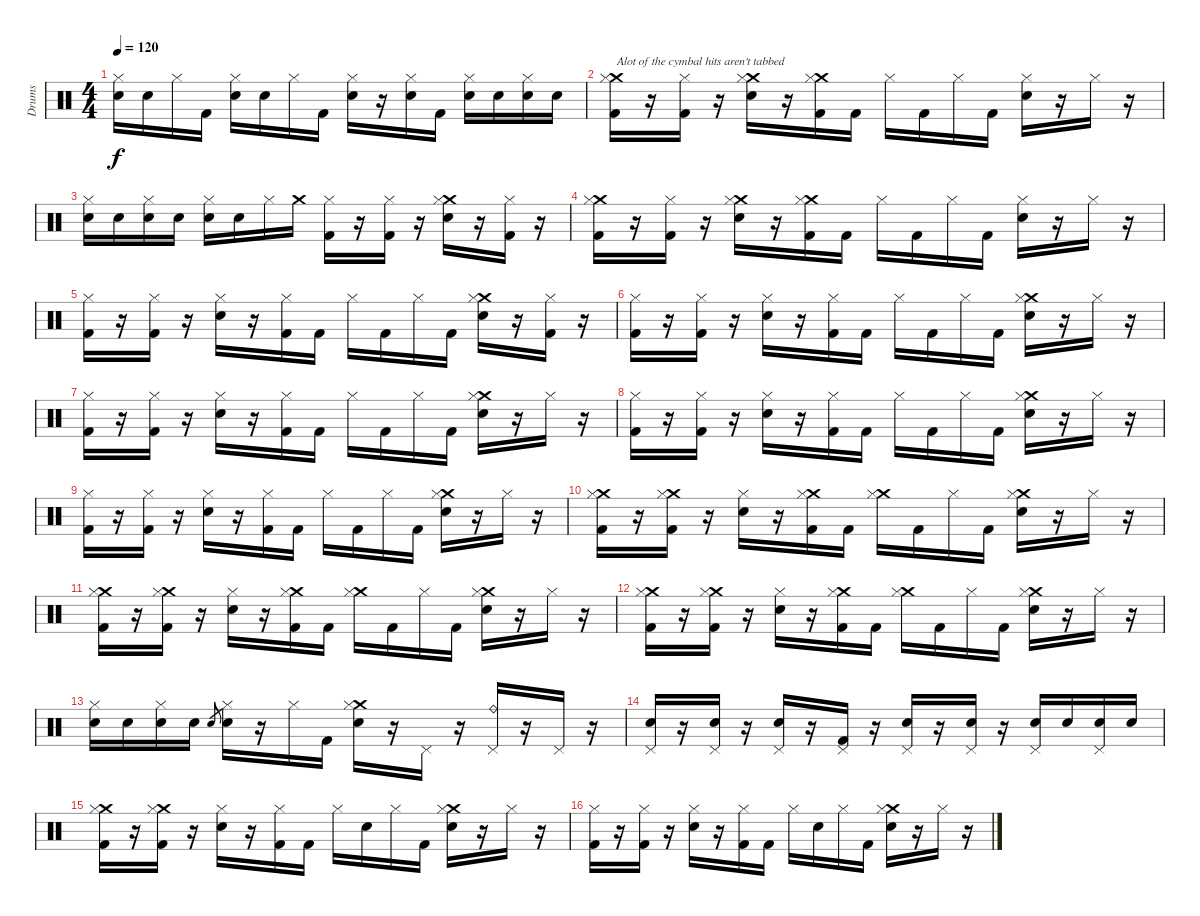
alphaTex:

\track ("Drums" "Drums") {instrument percussion}
\staff {score}
\articulation defaults
\ts (4 4)
\tempo 120
\clef neutral
\ks c
("Hi-Hat (closed)" "Snare (hit) 2").16{dy f} "Snare (hit) 2".16 "Hi-Hat (closed)".16 "Kick (hit) 2".16 ("Hi-Hat (closed)" "Snare (hit) 2").16 "Snare (hit) 2".16 "Hi-Hat (closed)".16 "Kick (hit) 2".16 ("Hi-Hat (closed)" "Snare (hit) 2").16 r.16 ("Hi-Hat (closed)" "Snare (hit) 2").16 "Kick (hit) 2".16 ("Hi-Hat (closed)" "Snare (hit) 2").16 "Snare (hit) 2".16 ("Hi-Hat (closed)" "Snare (hit) 2").16 "Snare (hit) 2".16 |
("Crash medium (hit)" "Hi-Hat (closed)" "Kick (hit) 2").16{txt "Alot of the cymbal hits aren't tabbed"} r.16 ("Hi-Hat (closed)" "Kick (hit) 2").16 r.16 ("Crash medium (hit)" "Hi-Hat (closed)" "Snare (hit) 2").16 r.16 ("Crash medium (hit)" "Hi-Hat (closed)" "Kick (hit) 2").16 "Kick (hit) 2".16 "Hi-Hat (closed)".16 "Kick (hit) 2".16 "Hi-Hat (closed)".16 "Kick (hit) 2".16 ("Hi-Hat (closed)" "Snare (hit) 2").16 r.16 "Hi-Hat (closed)".16 r.16 |
("Hi-Hat (closed)" "Snare (hit) 2").16 "Snare (hit) 2".16 ("Hi-Hat (closed)" "Snare (hit) 2").16 "Snare (hit) 2".16 ("Hi-Hat (closed)" "Snare (hit) 2").16 "Snare (hit) 2".16 "Hi-Hat (closed)".16 "Crash medium (hit)".16 ("Hi-Hat (closed)" "Kick (hit) 2").16 r.16 ("Hi-Hat (closed)" "Kick (hit) 2").16 r.16 ("Crash medium (hit)" "Hi-Hat (closed)" "Snare (hit) 2").16 r.16 ("Hi-Hat (closed)" "Kick (hit) 2").16 r.16 |
("Crash medium (hit)" "Hi-Hat (closed)" "Kick (hit) 2").16 r.16 ("Hi-Hat (closed)" "Kick (hit) 2").16 r.16 ("Crash medium (hit)" "Hi-Hat (closed)" "Snare (hit) 2").16 r.16 ("Crash medium (hit)" "Hi-Hat (closed)" "Kick (hit) 2").16 "Kick (hit) 2".16 "Hi-Hat (closed)".16 "Kick (hit) 2".16 "Hi-Hat (closed)".16 "Kick (hit) 2".16 ("Hi-Hat (closed)" "Snare (hit) 2").16 r.16 "Hi-Hat (closed)".16 r.16 |
("Hi-Hat (closed)" "Kick (hit) 2").16 r.16 ("Hi-Hat (closed)" "Kick (hit) 2").16 r.16 ("Hi-Hat (closed)" "Snare (hit) 2").16 r.16 ("Hi-Hat (closed)" "Kick (hit) 2").16 "Kick (hit) 2".16 "Hi-Hat (closed)".16 "Kick (hit) 2".16 "Hi-Hat (closed)".16 "Kick (hit) 2".16 ("Crash medium (hit)" "Hi-Hat (closed)" "Snare (hit) 2").16 r.16 ("Hi-Hat (closed)" "Kick (hit) 2").16 r.16 |
("Hi-Hat (closed)" "Kick (hit) 2").16 r.16 ("Hi-Hat (closed)" "Kick (hit) 2").16 r.16 ("Hi-Hat (closed)" "Snare (hit) 2").16 r.16 ("Hi-Hat (closed)" "Kick (hit) 2").16 "Kick (hit) 2".16 "Hi-Hat (closed)".16 "Kick (hit) 2".16 "Hi-Hat (closed)".16 "Kick (hit) 2".16 ("Crash medium (hit)" "Hi-Hat (closed)" "Snare (hit) 2").16 r.16 "Hi-Hat (closed)".16 r.16 |
("Hi-Hat (closed)" "Kick (hit) 2").16 r.16 ("Hi-Hat (closed)" "Kick (hit) 2").16 r.16 ("Hi-Hat (closed)" "Snare (hit) 2").16 r.16 ("Hi-Hat (closed)" "Kick (hit) 2").16 "Kick (hit) 2".16 "Hi-Hat (closed)".16 "Kick (hit) 2".16 "Hi-Hat (closed)".16 "Kick (hit) 2".16 ("Crash medium (hit)" "Hi-Hat (closed)" "Snare (hit) 2").16 r.16 "Hi-Hat (closed)".16 r.16 |
("Hi-Hat (closed)" "Kick (hit) 2").16 r.16 ("Hi-Hat (closed)" "Kick (hit) 2").16 r.16 ("Hi-Hat (closed)" "Snare (hit) 2").16 r.16 ("Hi-Hat (closed)" "Kick (hit) 2").16 "Kick (hit) 2".16 "Hi-Hat (closed)".16 "Kick (hit) 2".16 "Hi-Hat (closed)".16 "Kick (hit) 2".16 ("Crash medium (hit)" "Hi-Hat (closed)" "Snare (hit) 2").16 r.16 "Hi-Hat (closed)".16 r.16 |
("Hi-Hat (closed)" "Kick (hit) 2").16 r.16 ("Hi-Hat (closed)" "Kick (hit) 2").16 r.16 ("Hi-Hat (closed)" "Snare (hit) 2").16 r.16 ("Hi-Hat (closed)" "Kick (hit) 2").16 "Kick (hit) 2".16 "Hi-Hat (closed)".16 "Kick (hit) 2".16 "Hi-Hat (closed)".16 "Kick (hit) 2".16 ("Crash medium (hit)" "Hi-Hat (closed)" "Snare (hit) 2").16 r.16 "Hi-Hat (closed)".16 r.16 |
("Crash medium (hit)" "Hi-Hat (closed)" "Kick (hit) 2").16 r.16 ("Crash medium (hit)" "Hi-Hat (closed)" "Kick (hit) 2").16 r.16 ("Hi-Hat (closed)" "Snare (hit) 2").16 r.16 ("Crash medium (hit)" "Hi-Hat (closed)" "Kick (hit) 2").16 "Kick (hit) 2".16 ("Crash medium (hit)" "Hi-Hat (closed)").16 "Kick (hit) 2".16 "Hi-Hat (closed)".16 "Kick (hit) 2".16 ("Crash medium (hit)" "Hi-Hat (closed)" "Snare (hit) 2").16 r.16 "Hi-Hat (closed)".16 r.16 |
("Crash medium (hit)" "Hi-Hat (closed)" "Kick (hit) 2").16 r.16 ("Crash medium (hit)" "Hi-Hat (closed)" "Kick (hit) 2").16 r.16 ("Hi-Hat (closed)" "Snare (hit) 2").16 r.16 ("Crash medium (hit)" "Hi-Hat (closed)" "Kick (hit) 2").16 "Kick (hit) 2".16 ("Crash medium (hit)" "Hi-Hat (closed)").16 "Kick (hit) 2".16 "Hi-Hat (closed)".16 "Kick (hit) 2".16 ("Crash medium (hit)" "Hi-Hat (closed)" "Snare (hit) 2").16 r.16 "Hi-Hat (closed)".16 r.16 |
("Crash medium (hit)" "Hi-Hat (closed)" "Kick (hit) 2").16 r.16 ("Crash medium (hit)" "Hi-Hat (closed)" "Kick (hit) 2").16 r.16 ("Hi-Hat (closed)" "Snare (hit) 2").16 r.16 ("Crash medium (hit)" "Hi-Hat (closed)" "Kick (hit) 2").16 "Kick (hit) 2".16 ("Crash medium (hit)" "Hi-Hat (closed)").16 "Kick (hit) 2".16 "Hi-Hat (closed)".16 "Kick (hit) 2".16 ("Crash medium (hit)" "Hi-Hat (closed)" "Snare (hit) 2").16 r.16 "Hi-Hat (closed)".16 r.16 |
("Hi-Hat (closed)" "Snare (hit) 2").16 "Snare (hit) 2".16 ("Hi-Hat (closed)" "Snare (hit) 2").16 "Snare (hit) 2".16 "Snare (hit) 2".8{gr} ("Hi-Hat (closed)" "Snare (hit) 2").16 r.16 "Hi-Hat (closed)".16 "Kick (hit) 2".16 ("Crash medium (hit)" "Hi-Hat (closed)" "Snare (hit) 2").16 r.16 "Pedal Hi-Hat (hit)".16 r.16 ("Pedal Hi-Hat (hit)" "Ride (bell)").16 r.16 "Pedal Hi-Hat (hit)".16 r.16 |
("Pedal Hi-Hat (hit)" "Snare (hit) 2").16 r.16 ("Pedal Hi-Hat (hit)" "Snare (hit) 2").16 r.16 ("Pedal Hi-Hat (hit)" "Snare (hit) 2").16 r.16 ("Pedal Hi-Hat (hit)" "Kick (hit) 2").16 r.16 ("Pedal Hi-Hat (hit)" "Snare (hit) 2").16 r.16 ("Pedal Hi-Hat (hit)" "Snare (hit) 2").16 r.16 ("Pedal Hi-Hat (hit)" "Snare (hit) 2").16 "Snare (hit) 2".16 ("Pedal Hi-Hat (hit)" "Snare (hit) 2").16 "Snare (hit) 2".16 |
("Crash medium (hit)" "Hi-Hat (closed)" "Kick (hit) 2").16 r.16 ("Crash medium (hit)" "Hi-Hat (closed)" "Kick (hit) 2").16 r.16 ("Hi-Hat (closed)" "Snare (hit) 2").16 r.16 ("Hi-Hat (closed)" "Kick (hit) 2").16 "Kick (hit) 2".16 "Hi-Hat (closed)".16 "Snare (hit) 2".16 "Hi-Hat (closed)".16 "Kick (hit) 2".16 ("Crash medium (hit)" "Hi-Hat (closed)" "Snare (hit) 2").16 r.16 "Hi-Hat (closed)".16 r.16 |
("Hi-Hat (closed)" "Kick (hit) 2").16 r.16 ("Hi-Hat (closed)" "Kick (hit) 2").16 r.16 ("Hi-Hat (closed)" "Snare (hit) 2").16 r.16 ("Hi-Hat (closed)" "Kick (hit) 2").16 "Kick (hit) 2".16 "Hi-Hat (closed)".16 "Snare (hit) 2".16 "Hi-Hat (closed)".16 "Kick (hit) 2".16 ("Crash medium (hit)" "Hi-Hat (closed)" "Snare (hit) 2").16 r.16 "Hi-Hat (closed)".16 r.16
